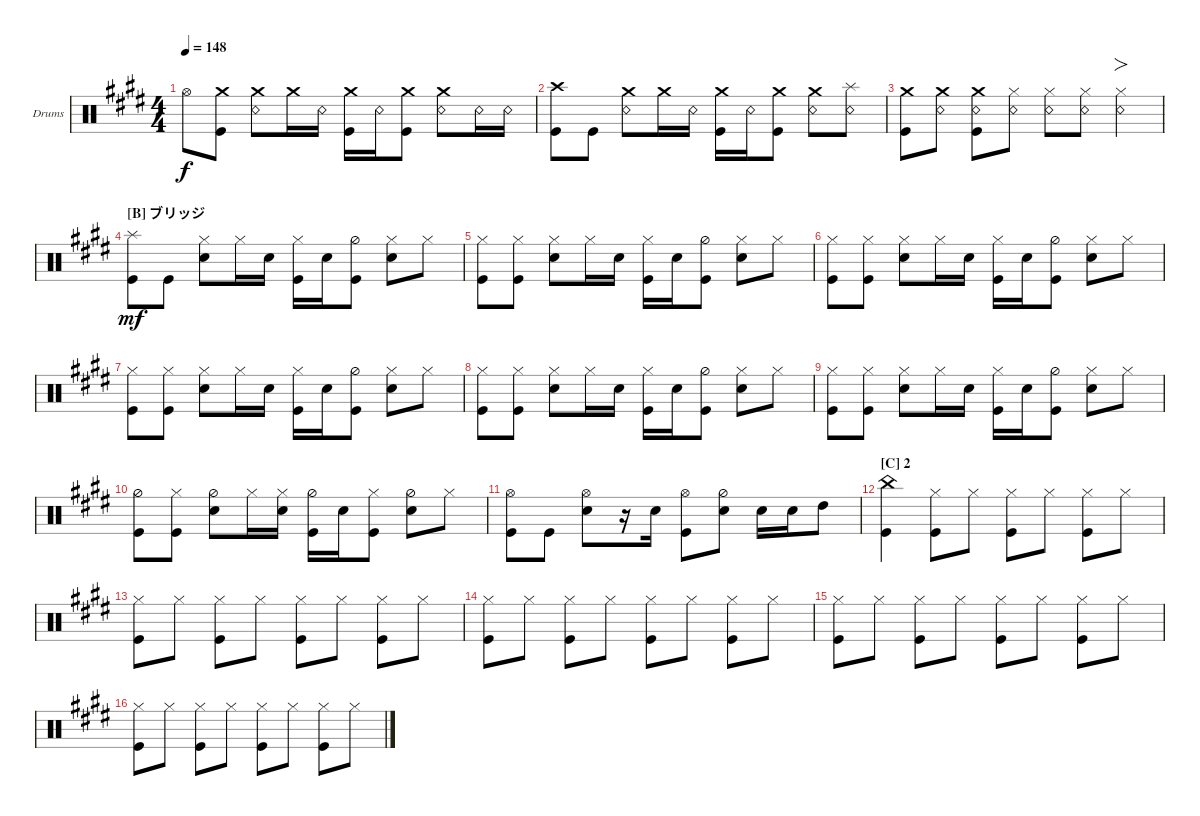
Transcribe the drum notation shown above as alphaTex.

\bracketExtendMode groupsimilarinstruments
\firstSystemTrackNameOrientation horizontal
\otherSystemsTrackNameOrientation horizontal
\track ("Ichigo" "Drums") {instrument percussion}
\staff {score}
\articulation defaults
\ts (4 4)
\tempo 148
\clef neutral
\ks e "Hi-Hat (open)"{t}.8{dy f}
("Kick (hit)" "Crash medium (hit)").8 ("Snare (rim shot)" "Crash medium (hit)").8 "Crash medium (hit)".16 "Snare (rim shot)".16 ("Kick (hit)" "Crash medium (hit)").16 "Snare (rim shot)".16 ("Kick (hit)" "Crash medium (hit)").8 ("Snare (rim shot)" "Crash medium (hit)").8 "Snare (rim shot)".16 "Snare (rim shot)".16 |
("Kick (hit)" "Crash high (hit)").8 "Kick (hit)".8 ("Snare (rim shot)" "Crash medium (hit)").8 "Crash medium (hit)".16 "Snare (rim shot)".16 ("Kick (hit)" "Crash medium (hit)").16 "Snare (rim shot)".16 ("Kick (hit)" "Crash medium (hit)").8 ("Snare (rim shot)" "Crash medium (hit)").8 ("Snare (rim shot)" "Splash (hit)").8 |
("Kick (hit)" "Crash medium (hit)").8 ("Snare (rim shot)" "Crash medium (hit)").8 ("Kick (hit)" "Crash medium (hit)" "Snare (rim shot)").8 ("Snare (rim shot)" "Hi-Hat (closed)").8 ("Snare (rim shot)" "Hi-Hat (closed)").8 ("Hi-Hat (closed)" "Snare (rim shot)").8 ("Hi-Hat (closed)" "Snare (rim shot)").4{fo} |
\section ("B" "ブリッジ")
("Splash (hit)" "Kick (hit)").8{dy mf} "Kick (hit)".8 ("Snare (hit) 2" "Hi-Hat (closed)").8 "Hi-Hat (closed)".16 "Snare (hit) 2".16 ("Hi-Hat (closed)" "Kick (hit)").16 "Snare (hit) 2".16 ("Kick (hit)" "Hi-Hat (half)").8 ("Hi-Hat (closed)" "Snare (hit) 2").8 "Hi-Hat (closed)".8 |
("Kick (hit)" "Hi-Hat (closed)").8 ("Kick (hit)" "Hi-Hat (closed)").8 ("Snare (hit) 2" "Hi-Hat (closed)").8 "Hi-Hat (closed)".16 "Snare (hit) 2".16 ("Hi-Hat (closed)" "Kick (hit)").16 "Snare (hit) 2".16 ("Kick (hit)" "Hi-Hat (half)").8 ("Hi-Hat (closed)" "Snare (hit) 2").8 "Hi-Hat (closed)".8 |
("Kick (hit)" "Hi-Hat (closed)").8 ("Kick (hit)" "Hi-Hat (closed)").8 ("Snare (hit) 2" "Hi-Hat (closed)").8 "Hi-Hat (closed)".16 "Snare (hit) 2".16 ("Hi-Hat (closed)" "Kick (hit)").16 "Snare (hit) 2".16 ("Kick (hit)" "Hi-Hat (half)").8 ("Hi-Hat (closed)" "Snare (hit) 2").8 "Hi-Hat (closed)".8 |
("Kick (hit)" "Hi-Hat (closed)").8 ("Kick (hit)" "Hi-Hat (closed)").8 ("Snare (hit) 2" "Hi-Hat (closed)").8 "Hi-Hat (closed)".16 "Snare (hit) 2".16 ("Hi-Hat (closed)" "Kick (hit)").16 "Snare (hit) 2".16 ("Kick (hit)" "Hi-Hat (half)").8 ("Hi-Hat (closed)" "Snare (hit) 2").8 "Hi-Hat (closed)".8 |
("Kick (hit)" "Hi-Hat (closed)").8 ("Kick (hit)" "Hi-Hat (closed)").8 ("Snare (hit) 2" "Hi-Hat (closed)").8 "Hi-Hat (closed)".16 "Snare (hit) 2".16 ("Hi-Hat (closed)" "Kick (hit)").16 "Snare (hit) 2".16 ("Kick (hit)" "Hi-Hat (half)").8 ("Hi-Hat (closed)" "Snare (hit) 2").8 "Hi-Hat (closed)".8 |
("Kick (hit)" "Hi-Hat (closed)").8 ("Kick (hit)" "Hi-Hat (closed)").8 ("Snare (hit) 2" "Hi-Hat (closed)").8 "Hi-Hat (closed)".16 "Snare (hit) 2".16 ("Hi-Hat (closed)" "Kick (hit)").16 "Snare (hit) 2".16 ("Kick (hit)" "Hi-Hat (half)").8 ("Hi-Hat (closed)" "Snare (hit) 2").8 "Hi-Hat (closed)".8 |
("Kick (hit)" "Hi-Hat (half)").8 ("Kick (hit)" "Hi-Hat (closed)").8 ("Snare (hit) 2" "Hi-Hat (half)").8 "Hi-Hat (closed)".16 ("Snare (hit) 2" "Hi-Hat (closed)").16 ("Hi-Hat (half)" "Kick (hit)").16 "Snare (hit) 2".16 ("Kick (hit)" "Hi-Hat (closed)").8 ("Snare (hit) 2" "Hi-Hat (half)").8 "Hi-Hat (closed)".8 |
("Kick (hit)" "Hi-Hat (open)").8 "Kick (hit)".8 ("Snare (hit) 2" "Hi-Hat (open)").8 r.16 "Snare (hit) 2".16 ("Hi-Hat (open)" "Kick (hit)").8 ("Hi-Hat (half)" "Snare (hit) 2").8 "Snare (hit) 2".16 "Snare (hit) 2".16 "High Tom (hit)".8 |
\section ("C" "2")
("China (hit)" "Kick (hit)").4 ("Hi-Hat (closed)" "Kick (hit)").8 "Hi-Hat (closed)".8 ("Hi-Hat (closed)" "Kick (hit)").8 "Hi-Hat (closed)".8 ("Hi-Hat (closed)" "Kick (hit)").8 "Hi-Hat (closed)".8 |
("Hi-Hat (closed)" "Kick (hit)").8 "Hi-Hat (closed)".8 ("Hi-Hat (closed)" "Kick (hit)").8 "Hi-Hat (closed)".8 ("Hi-Hat (closed)" "Kick (hit)").8 "Hi-Hat (closed)".8 ("Hi-Hat (closed)" "Kick (hit)").8 "Hi-Hat (closed)".8 |
("Hi-Hat (closed)" "Kick (hit)").8 "Hi-Hat (closed)".8 ("Hi-Hat (closed)" "Kick (hit)").8 "Hi-Hat (closed)".8 ("Hi-Hat (closed)" "Kick (hit)").8 "Hi-Hat (closed)".8 ("Hi-Hat (closed)" "Kick (hit)").8 "Hi-Hat (closed)".8 |
("Hi-Hat (closed)" "Kick (hit)").8 "Hi-Hat (closed)".8 ("Hi-Hat (closed)" "Kick (hit)").8 "Hi-Hat (closed)".8 ("Hi-Hat (closed)" "Kick (hit)").8 "Hi-Hat (closed)".8 ("Hi-Hat (closed)" "Kick (hit)").8 "Hi-Hat (closed)".8 |
("Hi-Hat (closed)" "Kick (hit)").8 "Hi-Hat (closed)".8 ("Hi-Hat (closed)" "Kick (hit)").8 "Hi-Hat (closed)".8 ("Hi-Hat (closed)" "Kick (hit)").8 "Hi-Hat (closed)".8 ("Hi-Hat (closed)" "Kick (hit)").8 "Hi-Hat (closed)".8
